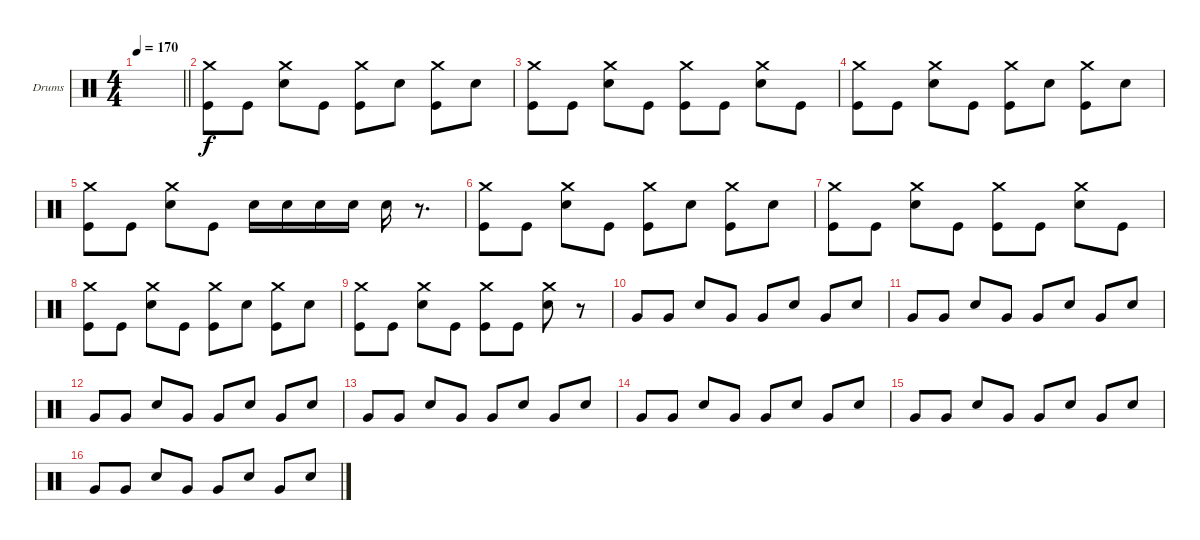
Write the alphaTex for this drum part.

\defaultSystemsLayout 4
\bracketExtendMode groupsimilarinstruments
\firstSystemTrackNameOrientation horizontal
\otherSystemsTrackNameOrientation horizontal
\track ("Drumkit" "Drums") {instrument percussion}
\staff {score}
\articulation defaults
\ts (4 4)
\tempo 170
\clef neutral
\scale
0.472222
\barLineRight lightlight
\ks c
|
\scale
0.263889 ("Crash medium (hit)" "Kick (hit)").8 "Kick (hit)".8 ("Crash medium (hit)" "Snare (hit) 2").8 "Kick (hit)".8 ("Crash medium (hit)" "Kick (hit)").8 "Snare (hit) 2".8 ("Crash medium (hit)" "Kick (hit)").8 "Snare (hit) 2".8 |
\scale
0.263889 ("Crash medium (hit)" "Kick (hit)").8 "Kick (hit)".8 ("Crash medium (hit)" "Snare (hit) 2").8 "Kick (hit)".8 ("Crash medium (hit)" "Kick (hit)").8 "Kick (hit)".8 ("Crash medium (hit)" "Snare (hit) 2").8 "Kick (hit)".8 |
\scale
0.333333 ("Crash medium (hit)" "Kick (hit)").8 "Kick (hit)".8 ("Crash medium (hit)" "Snare (hit) 2").8 "Kick (hit)".8 ("Crash medium (hit)" "Kick (hit)").8 "Snare (hit) 2".8 ("Crash medium (hit)" "Kick (hit)").8 "Snare (hit) 2".8 |
\scale
0.333333 ("Crash medium (hit)" "Kick (hit)").8 "Kick (hit)".8 ("Crash medium (hit)" "Snare (hit) 2").8 "Kick (hit)".8 "Snare (hit) 2".16 "Snare (hit) 2".16 "Snare (hit) 2".16 "Snare (hit) 2".16 "Snare (hit) 2".16 r.8{d} |
\scale
0.333333 ("Crash medium (hit)" "Kick (hit)").8 "Kick (hit)".8 ("Crash medium (hit)" "Snare (hit) 2").8 "Kick (hit)".8 ("Crash medium (hit)" "Kick (hit)").8 "Snare (hit) 2".8 ("Crash medium (hit)" "Kick (hit)").8 "Snare (hit) 2".8 |
\scale
0.333333 ("Crash medium (hit)" "Kick (hit)").8 "Kick (hit)".8 ("Crash medium (hit)" "Snare (hit) 2").8 "Kick (hit)".8 ("Crash medium (hit)" "Kick (hit)").8 "Kick (hit)".8 ("Crash medium (hit)" "Snare (hit) 2").8 "Kick (hit)".8 |
\scale
0.333333 ("Crash medium (hit)" "Kick (hit)").8 "Kick (hit)".8 ("Crash medium (hit)" "Snare (hit) 2").8 "Kick (hit)".8 ("Crash medium (hit)" "Kick (hit)").8 "Snare (hit) 2".8 ("Crash medium (hit)" "Kick (hit)").8 "Snare (hit) 2".8 |
\scale
0.333333 ("Crash medium (hit)" "Kick (hit)").8 "Kick (hit)".8 ("Crash medium (hit)" "Snare (hit) 2").8 "Kick (hit)".8 ("Crash medium (hit)" "Kick (hit)").8 "Kick (hit)".8 ("Crash medium (hit)" "Snare (hit) 2").8 r.8 |
\scale
0.333333 "Very Low Tom (hit)".8 "Very Low Tom (hit)".8 "Snare (hit) 2".8 "Very Low Tom (hit)".8 "Very Low Tom (hit)".8 "Snare (hit) 2".8 "Very Low Tom (hit)".8 "Snare (hit) 2".8 |
\scale
0.333333 "Very Low Tom (hit)".8 "Very Low Tom (hit)".8 "Snare (hit) 2".8 "Very Low Tom (hit)".8 "Very Low Tom (hit)".8 "Snare (hit) 2".8 "Very Low Tom (hit)".8 "Snare (hit) 2".8 |
\scale
0.333333 "Very Low Tom (hit)".8 "Very Low Tom (hit)".8 "Snare (hit) 2".8 "Very Low Tom (hit)".8 "Very Low Tom (hit)".8 "Snare (hit) 2".8 "Very Low Tom (hit)".8 "Snare (hit) 2".8 |
\scale
0.333333 "Very Low Tom (hit)".8 "Very Low Tom (hit)".8 "Snare (hit) 2".8 "Very Low Tom (hit)".8 "Very Low Tom (hit)".8 "Snare (hit) 2".8 "Very Low Tom (hit)".8 "Snare (hit) 2".8 |
\scale
0.333333 "Very Low Tom (hit)".8 "Very Low Tom (hit)".8 "Snare (hit) 2".8 "Very Low Tom (hit)".8 "Very Low Tom (hit)".8 "Snare (hit) 2".8 "Very Low Tom (hit)".8 "Snare (hit) 2".8 |
\scale
0.333333 "Very Low Tom (hit)".8 "Very Low Tom (hit)".8 "Snare (hit) 2".8 "Very Low Tom (hit)".8 "Very Low Tom (hit)".8 "Snare (hit) 2".8 "Very Low Tom (hit)".8 "Snare (hit) 2".8 |
\scale
0.333333 "Very Low Tom (hit)".8 "Very Low Tom (hit)".8 "Snare (hit) 2".8 "Very Low Tom (hit)".8 "Very Low Tom (hit)".8 "Snare (hit) 2".8 "Very Low Tom (hit)".8 "Snare (hit) 2".8
